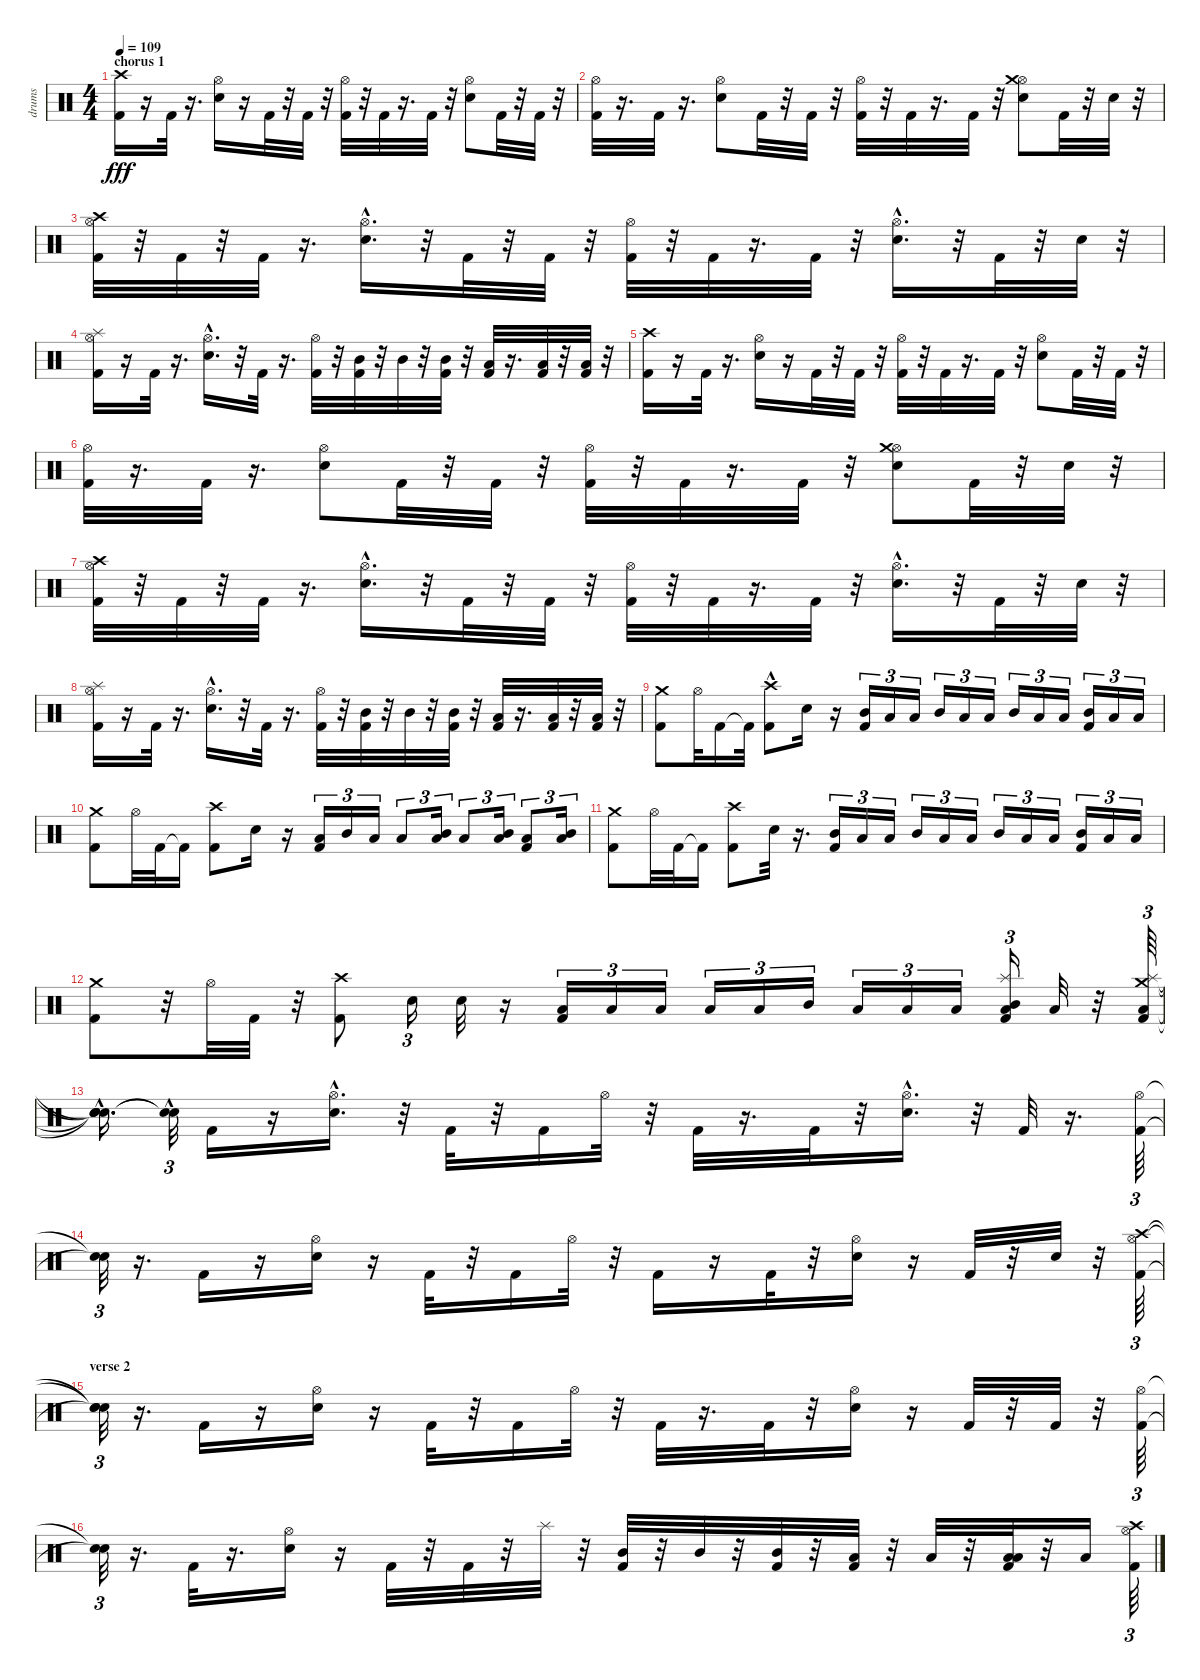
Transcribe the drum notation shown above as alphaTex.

\track ("drums" "drums") {instrument percussion}
\staff {score}
\articulation defaults
\ts (4 4)
\section ("" "chorus 1")
\tempo 109
\clef neutral
\ks c
("Kick (hit) 2" "Crash high (hit)").16{dy fff} r.16 "Kick (hit) 2".32 r.16{d} ("Snare (hit) 2" "Hi-Hat (open)").16 r.16 "Kick (hit) 2".32 r.32 "Kick (hit) 2".32 r.32 ("Kick (hit) 2" "Hi-Hat (open)").32 r.32 "Kick (hit) 2".32 r.16{d} "Kick (hit) 2".32 r.32 ("Snare (hit) 2" "Hi-Hat (open)").8 "Kick (hit) 2".32 r.32 "Kick (hit) 2".32 r.32 |
("Kick (hit) 2" "Hi-Hat (open)").32 r.16{d} "Kick (hit) 2".32 r.16{d} ("Snare (hit) 2" "Hi-Hat (open)").8 "Kick (hit) 2".32 r.32 "Kick (hit) 2".32 r.32 ("Kick (hit) 2" "Hi-Hat (open)").32 r.32 "Kick (hit) 2".32 r.16{d} "Kick (hit) 2".32 r.32 ("Snare (hit) 2" "Hi-Hat (open)" "Crash medium (hit)").8 "Kick (hit) 2".32 r.32 "Snare (hit) 2".32 r.32 |
("Kick (hit) 2" "Hi-Hat (open)" "Crash high (hit)").32 r.32 "Kick (hit) 2".32 r.32 "Kick (hit) 2".32 r.16{d} ("Snare (hit) 2"{hac} "Hi-Hat (open)").16{d} r.32 "Kick (hit) 2".32 r.32 "Kick (hit) 2".32 r.32 ("Kick (hit) 2" "Hi-Hat (open)").32 r.32 "Kick (hit) 2".32 r.16{d} "Kick (hit) 2".32 r.32 ("Snare (hit) 2"{hac} "Hi-Hat (open)").16{d} r.32 "Kick (hit) 2".32 r.32 "Snare (hit) 2".32 r.32 |
("Kick (hit) 2" "Hi-Hat (open)" "Splash (hit)").16 r.16 "Kick (hit) 2".32 r.16{d} ("Snare (hit) 2"{hac} "Hi-Hat (open)").16{d} r.32 "Kick (hit) 2".32 r.16{d} ("Kick (hit) 2" "Hi-Hat (open)").32 r.32 ("Kick (hit) 2" "Mid Tom (hit)").32 r.32 "Mid Tom (hit)".32 r.32 ("Kick (hit) 2" "Mid Tom (hit)").32 r.32 ("Kick (hit) 2" "Low Tom (hit)").32 r.16{d} ("Kick (hit) 2" "Low Floor Tom (hit)").32 r.32 ("Kick (hit) 2" "Low Floor Tom (hit)").32 r.32 |
("Kick (hit) 2" "Crash high (hit)").16 r.16 "Kick (hit) 2".32 r.16{d} ("Snare (hit) 2" "Hi-Hat (open)").16 r.16 "Kick (hit) 2".32 r.32 "Kick (hit) 2".32 r.32 ("Kick (hit) 2" "Hi-Hat (open)").32 r.32 "Kick (hit) 2".32 r.16{d} "Kick (hit) 2".32 r.32 ("Snare (hit) 2" "Hi-Hat (open)").8 "Kick (hit) 2".32 r.32 "Kick (hit) 2".32 r.32 |
("Kick (hit) 2" "Hi-Hat (open)").32 r.16{d} "Kick (hit) 2".32 r.16{d} ("Snare (hit) 2" "Hi-Hat (open)").8 "Kick (hit) 2".32 r.32 "Kick (hit) 2".32 r.32 ("Kick (hit) 2" "Hi-Hat (open)").32 r.32 "Kick (hit) 2".32 r.16{d} "Kick (hit) 2".32 r.32 ("Snare (hit) 2" "Hi-Hat (open)" "Crash medium (hit)").8 "Kick (hit) 2".32 r.32 "Snare (hit) 2".32 r.32 |
("Kick (hit) 2" "Hi-Hat (open)" "Crash high (hit)").32 r.32 "Kick (hit) 2".32 r.32 "Kick (hit) 2".32 r.16{d} ("Snare (hit) 2"{hac} "Hi-Hat (open)").16{d} r.32 "Kick (hit) 2".32 r.32 "Kick (hit) 2".32 r.32 ("Kick (hit) 2" "Hi-Hat (open)").32 r.32 "Kick (hit) 2".32 r.16{d} "Kick (hit) 2".32 r.32 ("Snare (hit) 2"{hac} "Hi-Hat (open)").16{d} r.32 "Kick (hit) 2".32 r.32 "Snare (hit) 2".32 r.32 |
("Kick (hit) 2" "Hi-Hat (open)" "Splash (hit)").16 r.16 "Kick (hit) 2".32 r.16{d} ("Snare (hit) 2"{hac} "Hi-Hat (open)").16{d} r.32 "Kick (hit) 2".32 r.16{d} ("Kick (hit) 2" "Hi-Hat (open)").32 r.32 ("Kick (hit) 2" "Mid Tom (hit)").32 r.32 "Mid Tom (hit)".32 r.32 ("Kick (hit) 2" "Mid Tom (hit)").32 r.32 ("Kick (hit) 2" "Low Tom (hit)").32 r.16{d} ("Kick (hit) 2" "Low Floor Tom (hit)").32 r.32 ("Kick (hit) 2" "Low Floor Tom (hit)").32 r.32 |
("Kick (hit) 2" "Crash medium (hit)").8 "Hi-Hat (open)".32 "Kick (hit) 2".16 "Kick (hit) 2"{t}.32 ("Kick (hit) 2" "Crash high (hit)"{hac}).8 "Snare (hit) 2".16 r.16 ("Kick (hit) 2" "Mid Tom (hit)").16{tu (3 2)} "Low Tom (hit)".16{tu (3 2)} "Low Floor Tom (hit)".16{tu (3 2)} "Mid Tom (hit)".16{tu (3 2)} "Low Tom (hit)".16{tu (3 2)} "Low Floor Tom (hit)".16{tu (3 2)} "Mid Tom (hit)".16{tu (3 2)} "Low Tom (hit)".16{tu (3 2)} "Low Floor Tom (hit)".16{tu (3 2)} ("Kick (hit) 2" "Mid Tom (hit)").16{tu (3 2)} "Low Tom (hit)".16{tu (3 2)} "Low Floor Tom (hit)".16{tu (3 2)} |
("Kick (hit) 2" "Crash medium (hit)").8 "Hi-Hat (open)".32 "Kick (hit) 2".32 "Kick (hit) 2"{t}.16 ("Kick (hit) 2" "Crash high (hit)").8 "Snare (hit) 2".16 r.16 ("Kick (hit) 2" "Low Tom (hit)").16{tu (3 2)} "Mid Tom (hit)".16{tu (3 2)} "Low Floor Tom (hit)".16{tu (3 2)} "Low Tom (hit)".8{tu (3 2)} ("Low Floor Tom (hit)" "Mid Tom (hit)").16{tu (3 2)} "Low Tom (hit)".8{tu (3 2)} ("Low Floor Tom (hit)" "Mid Tom (hit)").16{tu (3 2)} ("Kick (hit) 2" "Low Tom (hit)").8{tu (3 2)} ("Low Floor Tom (hit)" "Mid Tom (hit)").16{tu (3 2)} |
("Kick (hit) 2" "Crash medium (hit)").8 "Hi-Hat (open)".32 "Kick (hit) 2".32 "Kick (hit) 2"{t}.16 ("Kick (hit) 2" "Crash high (hit)").8 "Snare (hit) 2".32 r.16{d} ("Kick (hit) 2" "Mid Tom (hit)").16{tu (3 2)} "Low Tom (hit)".16{tu (3 2)} "Low Floor Tom (hit)".16{tu (3 2)} "Mid Tom (hit)".16{tu (3 2)} "Low Tom (hit)".16{tu (3 2)} "Low Floor Tom (hit)".16{tu (3 2)} "Mid Tom (hit)".16{tu (3 2)} "Low Tom (hit)".16{tu (3 2)} "Low Floor Tom (hit)".16{tu (3 2)} ("Kick (hit) 2" "Mid Tom (hit)").16{tu (3 2)} "Low Tom (hit)".16{tu (3 2)} "Low Floor Tom (hit)".16{tu (3 2)} |
("Kick (hit) 2" "Crash medium (hit)").8 r.32 "Hi-Hat (open)".32 "Kick (hit) 2".32 r.32 ("Kick (hit) 2" "Crash high (hit)").8 "Snare (hit) 2".16{tu (3 2)} "Snare (hit) 2".32 r.16 ("Kick (hit) 2" "Low Tom (hit)").16{tu (3 2)} "Low Tom (hit)".16{tu (3 2)} "Low Tom (hit)".16{tu (3 2)} "Low Tom (hit)".16{tu (3 2)} "Low Floor Tom (hit)".16{tu (3 2)} "Mid Tom (hit)".16{tu (3 2)} "Low Tom (hit)".16{tu (3 2)} "Low Floor Tom (hit)".16{tu (3 2)} "Low Tom (hit)".16{tu (3 2)} ("Kick (hit) 2" "Low Floor Tom (hit)" "Mid Tom (hit)" "Splash (hit)").16{tu (3 2)} "Low Tom (hit)".32 r.32 ("Kick (hit) 2" "Low Floor Tom (hit)" "Crash medium (hit)" "Splash (hit)").64{tu (3 2)} |
("Snare (hit)"{hac t} "Snare (hit)"{hac t} "Snare (hit)"{t} "Snare (hit)"{hac t}).16{d} ("Snare (hit)"{hac t} "Snare (hit)"{t}).32{tu (3 2)} "Kick (hit) 2".16 r.16 ("Snare (hit) 2"{hac} "Hi-Hat (open)").16{d} r.32 "Kick (hit) 2".32 r.32 "Kick (hit) 2".16 "Hi-Hat (open)".32 r.32 "Kick (hit) 2".32 r.16{d} "Kick (hit) 2".32 r.32 ("Snare (hit) 2"{hac} "Hi-Hat (open)").16{d} r.32 "Kick (hit) 2".32 r.16{d} ("Kick (hit) 2" "Hi-Hat (open)").64{tu (3 2)} |
("Snare (hit)"{t} "Snare (hit)"{t}).32{tu (3 2)} r.16{d} "Kick (hit) 2".16 r.16 ("Snare (hit) 2" "Hi-Hat (open)").16 r.16 "Kick (hit) 2".32 r.32 "Kick (hit) 2".16 "Hi-Hat (open)".32 r.32 "Kick (hit) 2".16 r.16 "Kick (hit) 2".32 r.32 ("Snare (hit) 2" "Hi-Hat (open)").16 r.16 "Kick (hit) 2".32 r.32 "Snare (hit) 2".32 r.32 ("Kick (hit) 2" "Hi-Hat (open)" "Crash high (hit)").64{tu (3 2)} |
\section ("" "verse 2")
("Snare (hit)"{t} "Snare (hit)"{t} "Snare (hit)"{t}).32{tu (3 2)} r.16{d} "Kick (hit) 2".16 r.16 ("Snare (hit) 2" "Hi-Hat (open)").16 r.16 "Kick (hit) 2".32 r.32 "Kick (hit) 2".16 "Hi-Hat (open)".32 r.32 "Kick (hit) 2".32 r.16{d} "Kick (hit) 2".32 r.32 ("Snare (hit) 2" "Hi-Hat (open)").16 r.16 "Kick (hit) 2".32 r.32 "Kick (hit) 2".32 r.32 ("Kick (hit) 2" "Hi-Hat (open)").64{tu (3 2)} |
("Snare (hit)"{t} "Snare (hit)"{t}).32{tu (3 2)} r.16{d} "Kick (hit) 2".32 r.16{d} ("Snare (hit) 2" "Hi-Hat (open)").16 r.16 "Kick (hit) 2".32 r.32 "Kick (hit) 2".32 r.32 "Splash (hit)".32 r.32 ("Kick (hit) 2" "Mid Tom (hit)").32 r.32 "Mid Tom (hit)".32 r.32 ("Kick (hit) 2" "Mid Tom (hit)").32 r.32 ("Kick (hit) 2" "Low Tom (hit)").32 r.32 "Low Tom (hit)".32 r.32 ("Kick (hit) 2" "Low Floor Tom (hit)" "Low Floor Tom (hit)").32 r.32 "Low Floor Tom (hit)".16 ("Kick (hit) 2" "Hi-Hat (open)" "Crash high (hit)").64{tu (3 2)}
